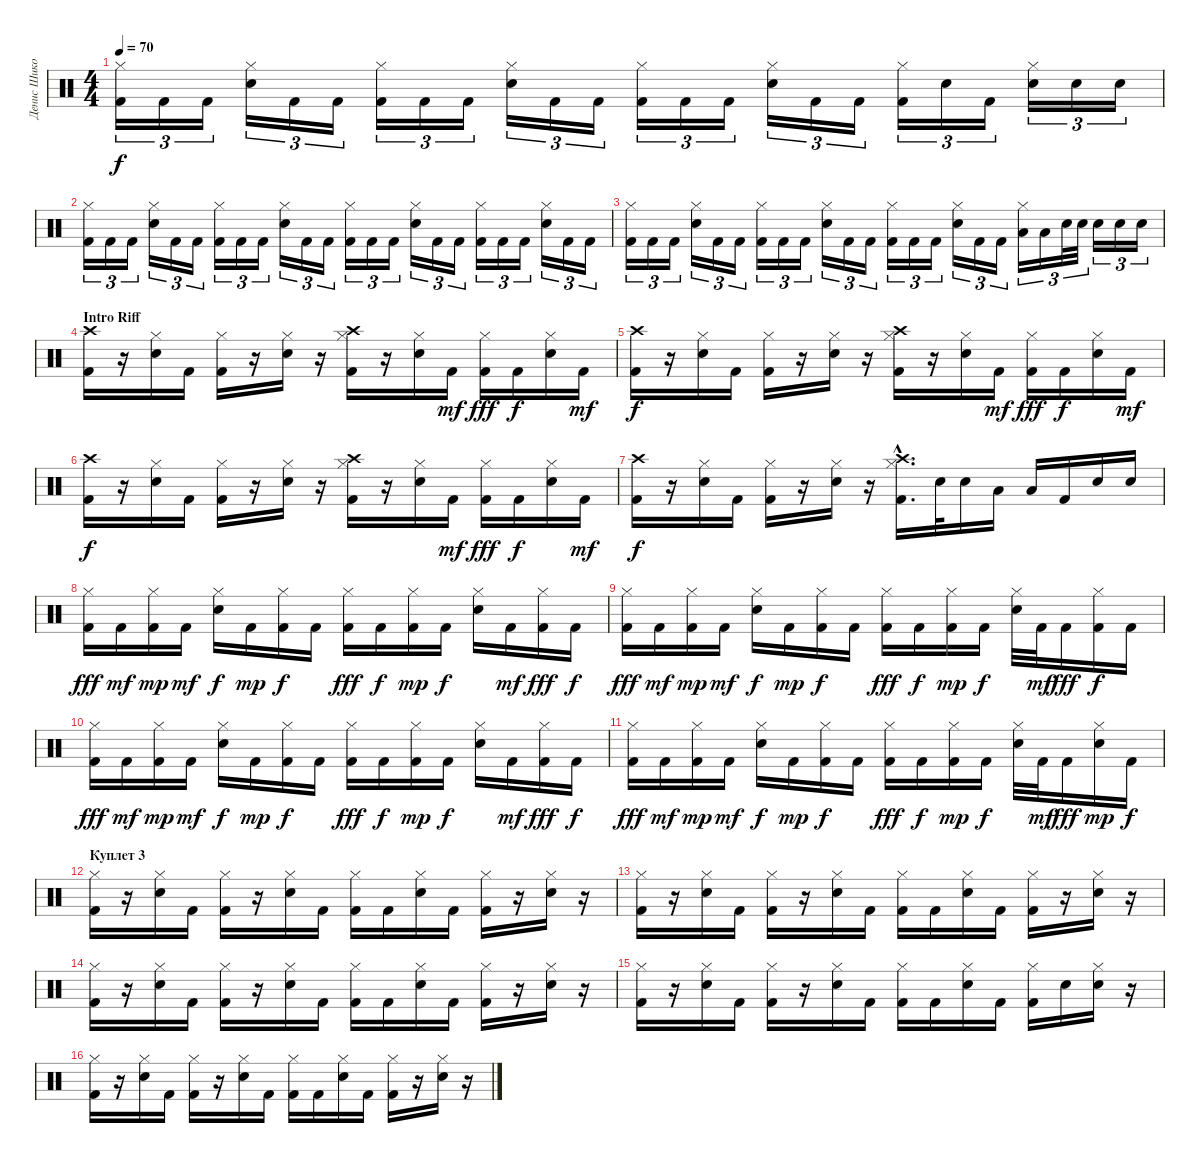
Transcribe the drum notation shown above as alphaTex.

\track ("Денис Шиков" "Денис Шико") {instrument percussion}
\staff {score}
\articulation defaults
\ts (4 4)
\tempo 70
\clef neutral
\ks c
("Hi-Hat (closed)" "Kick (hit) 2").16{tu (3 2) dy f} "Kick (hit) 2".16{tu (3 2)} "Kick (hit) 2".16{tu (3 2)} ("Hi-Hat (closed)" "Electric Snare (hit)").16{tu (3 2)} "Kick (hit) 2".16{tu (3 2)} "Kick (hit) 2".16{tu (3 2)} ("Hi-Hat (closed)" "Kick (hit) 2").16{tu (3 2)} "Kick (hit) 2".16{tu (3 2)} "Kick (hit) 2".16{tu (3 2)} ("Hi-Hat (closed)" "Electric Snare (hit)").16{tu (3 2)} "Kick (hit) 2".16{tu (3 2)} "Kick (hit) 2".16{tu (3 2)} ("Hi-Hat (closed)" "Kick (hit) 2").16{tu (3 2)} "Kick (hit) 2".16{tu (3 2)} "Kick (hit) 2".16{tu (3 2)} ("Hi-Hat (closed)" "Electric Snare (hit)").16{tu (3 2)} "Kick (hit) 2".16{tu (3 2)} "Kick (hit) 2".16{tu (3 2)} ("Hi-Hat (closed)" "Kick (hit) 2").16{tu (3 2)} "Electric Snare (hit)".16{tu (3 2)} "Kick (hit) 2".16{tu (3 2)} ("Hi-Hat (closed)" "Electric Snare (hit)").16{tu (3 2)} "Electric Snare (hit)".16{tu (3 2)} "Electric Snare (hit)".16{tu (3 2)} |
("Hi-Hat (closed)" "Kick (hit) 2").16{tu (3 2)} "Kick (hit) 2".16{tu (3 2)} "Kick (hit) 2".16{tu (3 2)} ("Hi-Hat (closed)" "Electric Snare (hit)").16{tu (3 2)} "Kick (hit) 2".16{tu (3 2)} "Kick (hit) 2".16{tu (3 2)} ("Hi-Hat (closed)" "Kick (hit) 2").16{tu (3 2)} "Kick (hit) 2".16{tu (3 2)} "Kick (hit) 2".16{tu (3 2)} ("Hi-Hat (closed)" "Electric Snare (hit)").16{tu (3 2)} "Kick (hit) 2".16{tu (3 2)} "Kick (hit) 2".16{tu (3 2)} ("Hi-Hat (closed)" "Kick (hit) 2").16{tu (3 2)} "Kick (hit) 2".16{tu (3 2)} "Kick (hit) 2".16{tu (3 2)} ("Hi-Hat (closed)" "Electric Snare (hit)").16{tu (3 2)} "Kick (hit) 2".16{tu (3 2)} "Kick (hit) 2".16{tu (3 2)} ("Hi-Hat (closed)" "Kick (hit) 2").16{tu (3 2)} "Kick (hit) 2".16{tu (3 2)} "Kick (hit) 2".16{tu (3 2)} ("Hi-Hat (closed)" "Electric Snare (hit)").16{tu (3 2)} "Kick (hit) 2".16{tu (3 2)} "Kick (hit) 2".16{tu (3 2)} |
("Hi-Hat (closed)" "Kick (hit) 2").16{tu (3 2)} "Kick (hit) 2".16{tu (3 2)} "Kick (hit) 2".16{tu (3 2)} ("Hi-Hat (closed)" "Electric Snare (hit)").16{tu (3 2)} "Kick (hit) 2".16{tu (3 2)} "Kick (hit) 2".16{tu (3 2)} ("Hi-Hat (closed)" "Kick (hit) 2").16{tu (3 2)} "Kick (hit) 2".16{tu (3 2)} "Kick (hit) 2".16{tu (3 2)} ("Hi-Hat (closed)" "Electric Snare (hit)").16{tu (3 2)} "Kick (hit) 2".16{tu (3 2)} "Kick (hit) 2".16{tu (3 2)} ("Hi-Hat (closed)" "Kick (hit) 2").16{tu (3 2)} "Kick (hit) 2".16{tu (3 2)} "Kick (hit) 2".16{tu (3 2)} ("Hi-Hat (closed)" "Electric Snare (hit)").16{tu (3 2)} "Kick (hit) 2".16{tu (3 2)} "Kick (hit) 2".16{tu (3 2)} ("Hi-Hat (closed)" "Low Tom (hit)").16{tu (3 2)} "Low Floor Tom (hit)".16{tu (3 2)} "Electric Snare (hit)".32{tu (3 2)} "Electric Snare (hit)".32{tu (3 2)} "Electric Snare (hit)".16{tu (3 2)} "Electric Snare (hit)".16{tu (3 2)} "Electric Snare (hit)".16{tu (3 2)} |
\section ("" "Intro Riff")
("Crash high (hit)" "Kick (hit) 2").16 r.16 ("Hi-Hat (closed)" "Electric Snare (hit)").16 "Kick (hit) 2".16 ("Hi-Hat (closed)" "Kick (hit) 2").16 r.16 ("Hi-Hat (closed)" "Electric Snare (hit)").16 r.16 ("Crash high (hit)" "Hi-Hat (closed)" "Kick (hit) 2").16 r.16 ("Hi-Hat (closed)" "Electric Snare (hit)").16 "Kick (hit) 2".16{dy mf} ("Hi-Hat (closed)" "Kick (hit) 2").16{dy fff} "Kick (hit) 2".16{dy f} ("Hi-Hat (closed)" "Electric Snare (hit)").16 "Kick (hit) 2".16{dy mf} |
("Crash high (hit)" "Kick (hit) 2").16{dy f} r.16 ("Hi-Hat (closed)" "Electric Snare (hit)").16 "Kick (hit) 2".16 ("Hi-Hat (closed)" "Kick (hit) 2").16 r.16 ("Hi-Hat (closed)" "Electric Snare (hit)").16 r.16 ("Crash high (hit)" "Hi-Hat (closed)" "Kick (hit) 2").16 r.16 ("Hi-Hat (closed)" "Electric Snare (hit)").16 "Kick (hit) 2".16{dy mf} ("Hi-Hat (closed)" "Kick (hit) 2").16{dy fff} "Kick (hit) 2".16{dy f} ("Hi-Hat (closed)" "Electric Snare (hit)").16 "Kick (hit) 2".16{dy mf} |
("Crash high (hit)" "Kick (hit) 2").16{dy f} r.16 ("Hi-Hat (closed)" "Electric Snare (hit)").16 "Kick (hit) 2".16 ("Hi-Hat (closed)" "Kick (hit) 2").16 r.16 ("Hi-Hat (closed)" "Electric Snare (hit)").16 r.16 ("Crash high (hit)" "Hi-Hat (closed)" "Kick (hit) 2").16 r.16 ("Hi-Hat (closed)" "Electric Snare (hit)").16 "Kick (hit) 2".16{dy mf} ("Hi-Hat (closed)" "Kick (hit) 2").16{dy fff} "Kick (hit) 2".16{dy f} ("Hi-Hat (closed)" "Electric Snare (hit)").16 "Kick (hit) 2".16{dy mf} |
("Crash high (hit)" "Kick (hit) 2").16{dy f} r.16 ("Hi-Hat (closed)" "Electric Snare (hit)").16 "Kick (hit) 2".16 ("Hi-Hat (closed)" "Kick (hit) 2").16 r.16 ("Hi-Hat (closed)" "Electric Snare (hit)").16 r.16 ("Crash high (hit)"{hac} "Hi-Hat (closed)"{hac} "Kick (hit) 2"{hac}).16{d} "Electric Snare (hit)".32 "Electric Snare (hit)".16 "Low Tom (hit)".16 "Low Floor Tom (hit)".16 "Kick (hit) 2".16 "Electric Snare (hit)".16 "Electric Snare (hit)".16 |
("Hi-Hat (closed)" "Kick (hit) 2").16{dy fff} "Kick (hit) 2".16{dy mf} ("Hi-Hat (closed)" "Kick (hit) 2").16{dy mp} "Kick (hit) 2".16{dy mf} ("Hi-Hat (closed)" "Electric Snare (hit)").16{dy f} "Kick (hit) 2".16{dy mp} ("Hi-Hat (closed)" "Kick (hit) 2").16{dy f} "Kick (hit) 2".16 ("Hi-Hat (closed)" "Kick (hit) 2").16{dy fff} "Kick (hit) 2".16{dy f} ("Hi-Hat (closed)" "Kick (hit) 2").16{dy mp} "Kick (hit) 2".16{dy f} ("Hi-Hat (closed)" "Electric Snare (hit)").16 "Kick (hit) 2".16{dy mf} ("Hi-Hat (closed)" "Kick (hit) 2").16{dy fff} "Kick (hit) 2".16{dy f} |
("Hi-Hat (closed)" "Kick (hit) 2").16{dy fff} "Kick (hit) 2".16{dy mf} ("Hi-Hat (closed)" "Kick (hit) 2").16{dy mp} "Kick (hit) 2".16{dy mf} ("Hi-Hat (closed)" "Electric Snare (hit)").16{dy f} "Kick (hit) 2".16{dy mp} ("Hi-Hat (closed)" "Kick (hit) 2").16{dy f} "Kick (hit) 2".16 ("Hi-Hat (closed)" "Kick (hit) 2").16{dy fff} "Kick (hit) 2".16{dy f} ("Hi-Hat (closed)" "Kick (hit) 2").16{dy mp} "Kick (hit) 2".16{dy f} ("Hi-Hat (closed)" "Electric Snare (hit)").32 "Kick (hit) 2".32{dy mf} "Kick (hit) 2".16{dy fff} ("Hi-Hat (closed)" "Kick (hit) 2").16{dy f} "Kick (hit) 2".16 |
("Hi-Hat (closed)" "Kick (hit) 2").16{dy fff} "Kick (hit) 2".16{dy mf} ("Hi-Hat (closed)" "Kick (hit) 2").16{dy mp} "Kick (hit) 2".16{dy mf} ("Hi-Hat (closed)" "Electric Snare (hit)").16{dy f} "Kick (hit) 2".16{dy mp} ("Hi-Hat (closed)" "Kick (hit) 2").16{dy f} "Kick (hit) 2".16 ("Hi-Hat (closed)" "Kick (hit) 2").16{dy fff} "Kick (hit) 2".16{dy f} ("Hi-Hat (closed)" "Kick (hit) 2").16{dy mp} "Kick (hit) 2".16{dy f} ("Hi-Hat (closed)" "Electric Snare (hit)").16 "Kick (hit) 2".16{dy mf} ("Hi-Hat (closed)" "Kick (hit) 2").16{dy fff} "Kick (hit) 2".16{dy f} |
("Hi-Hat (closed)" "Kick (hit) 2").16{dy fff} "Kick (hit) 2".16{dy mf} ("Hi-Hat (closed)" "Kick (hit) 2").16{dy mp} "Kick (hit) 2".16{dy mf} ("Hi-Hat (closed)" "Electric Snare (hit)").16{dy f} "Kick (hit) 2".16{dy mp} ("Hi-Hat (closed)" "Kick (hit) 2").16{dy f} "Kick (hit) 2".16 ("Hi-Hat (closed)" "Kick (hit) 2").16{dy fff} "Kick (hit) 2".16{dy f} ("Hi-Hat (closed)" "Kick (hit) 2").16{dy mp} "Kick (hit) 2".16{dy f} ("Hi-Hat (closed)" "Electric Snare (hit)").32 "Kick (hit) 2".32{dy mf} "Kick (hit) 2".16{dy fff} ("Hi-Hat (closed)" "Electric Snare (hit)").16{dy mp} "Kick (hit) 2".16{dy f} |
\section ("" "Куплет 3")
("Hi-Hat (closed)" "Kick (hit) 2").16 r.16 ("Hi-Hat (closed)" "Electric Snare (hit)").16 "Kick (hit) 2".16 ("Hi-Hat (closed)" "Kick (hit) 2").16 r.16 ("Hi-Hat (closed)" "Electric Snare (hit)").16 "Kick (hit) 2".16 ("Hi-Hat (closed)" "Kick (hit) 2").16 "Kick (hit) 2".16 ("Hi-Hat (closed)" "Electric Snare (hit)").16 "Kick (hit) 2".16 ("Hi-Hat (closed)" "Kick (hit) 2").16 r.16 ("Hi-Hat (closed)" "Electric Snare (hit)").16 r.16 |
("Hi-Hat (closed)" "Kick (hit) 2").16 r.16 ("Hi-Hat (closed)" "Electric Snare (hit)").16 "Kick (hit) 2".16 ("Hi-Hat (closed)" "Kick (hit) 2").16 r.16 ("Hi-Hat (closed)" "Electric Snare (hit)").16 "Kick (hit) 2".16 ("Hi-Hat (closed)" "Kick (hit) 2").16 "Kick (hit) 2".16 ("Hi-Hat (closed)" "Electric Snare (hit)").16 "Kick (hit) 2".16 ("Hi-Hat (closed)" "Kick (hit) 2").16 r.16 ("Hi-Hat (closed)" "Electric Snare (hit)").16 r.16 |
("Hi-Hat (closed)" "Kick (hit) 2").16 r.16 ("Hi-Hat (closed)" "Electric Snare (hit)").16 "Kick (hit) 2".16 ("Hi-Hat (closed)" "Kick (hit) 2").16 r.16 ("Hi-Hat (closed)" "Electric Snare (hit)").16 "Kick (hit) 2".16 ("Hi-Hat (closed)" "Kick (hit) 2").16 "Kick (hit) 2".16 ("Hi-Hat (closed)" "Electric Snare (hit)").16 "Kick (hit) 2".16 ("Hi-Hat (closed)" "Kick (hit) 2").16 r.16 ("Hi-Hat (closed)" "Electric Snare (hit)").16 r.16 |
("Hi-Hat (closed)" "Kick (hit) 2").16 r.16 ("Hi-Hat (closed)" "Electric Snare (hit)").16 "Kick (hit) 2".16 ("Hi-Hat (closed)" "Kick (hit) 2").16 r.16 ("Hi-Hat (closed)" "Electric Snare (hit)").16 "Kick (hit) 2".16 ("Hi-Hat (closed)" "Kick (hit) 2").16 "Kick (hit) 2".16 ("Hi-Hat (closed)" "Electric Snare (hit)").16 "Kick (hit) 2".16 ("Hi-Hat (closed)" "Kick (hit) 2").16 "Electric Snare (hit)".16 ("Hi-Hat (closed)" "Electric Snare (hit)").16 r.16 |
("Hi-Hat (closed)" "Kick (hit) 2").16 r.16 ("Hi-Hat (closed)" "Electric Snare (hit)").16 "Kick (hit) 2".16 ("Hi-Hat (closed)" "Kick (hit) 2").16 r.16 ("Hi-Hat (closed)" "Electric Snare (hit)").16 "Kick (hit) 2".16 ("Hi-Hat (closed)" "Kick (hit) 2").16 "Kick (hit) 2".16 ("Hi-Hat (closed)" "Electric Snare (hit)").16 "Kick (hit) 2".16 ("Hi-Hat (closed)" "Kick (hit) 2").16 r.16 ("Hi-Hat (closed)" "Electric Snare (hit)").16 r.16
